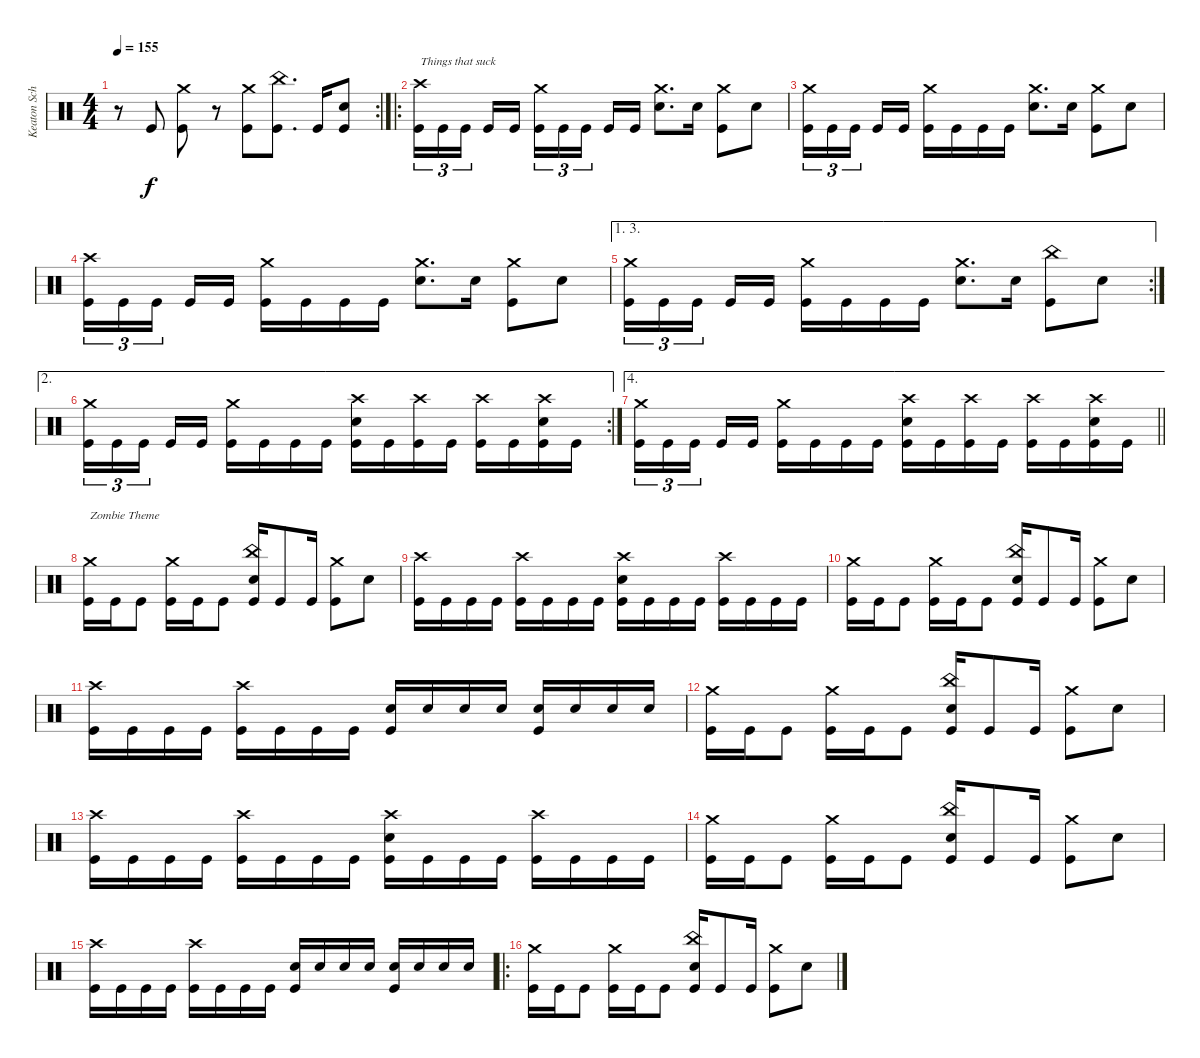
\track ("Keaton Schluchter Drums" "Keaton Sch") {instrument percussion bank 20}
\staff {score}
\articulation defaults
\rc 2
\ts (4 4)
\tempo 155
\clef neutral
\ks c
r.8{dy f} "Kick (hit)".8 ("Crash medium (hit)" "Kick (hit)").8 r.8 ("Crash medium (hit)" "Kick (hit)").8 ("China (hit)" "Kick (hit)").8{d} "Kick (hit)".16 ("Electric Snare (hit)" "Kick (hit)").8 |
\ro
("Crash high (hit)" "Kick (hit)").16{tu (3 2) txt "Things that suck"} "Kick (hit)".16{tu (3 2)} "Kick (hit)".16{tu (3 2) beam splitsecondary} "Kick (hit)".16 "Kick (hit)".16 ("Crash medium (hit)" "Kick (hit)").16{tu (3 2)} "Kick (hit)".16{tu (3 2)} "Kick (hit)".16{tu (3 2) beam splitsecondary} "Kick (hit)".16 "Kick (hit)".16 ("Crash medium (hit)" "Electric Snare (hit)").8{d} "Electric Snare (hit)".16 ("Crash medium (hit)" "Kick (hit)").8 "Electric Snare (hit)".8 |
("Crash medium (hit)" "Kick (hit)").16{tu (3 2)} "Kick (hit)".16{tu (3 2)} "Kick (hit)".16{tu (3 2) beam splitsecondary} "Kick (hit)".16 "Kick (hit)".16 ("Crash medium (hit)" "Kick (hit)").16 "Kick (hit)".16 "Kick (hit)".16 "Kick (hit)".16 ("Crash medium (hit)" "Electric Snare (hit)").8{d} "Electric Snare (hit)".16 ("Crash medium (hit)" "Kick (hit)").8 "Electric Snare (hit)".8 |
("Crash high (hit)" "Kick (hit)").16{tu (3 2)} "Kick (hit)".16{tu (3 2)} "Kick (hit)".16{tu (3 2) beam splitsecondary} "Kick (hit)".16 "Kick (hit)".16 ("Crash medium (hit)" "Kick (hit)").16 "Kick (hit)".16 "Kick (hit)".16 "Kick (hit)".16 ("Crash medium (hit)" "Electric Snare (hit)").8{d} "Electric Snare (hit)".16 ("Crash medium (hit)" "Kick (hit)").8 "Electric Snare (hit)".8 |
\ae (1 3)
\rc 2
("Crash medium (hit)" "Kick (hit)").16{tu (3 2)} "Kick (hit)".16{tu (3 2)} "Kick (hit)".16{tu (3 2) beam splitsecondary} "Kick (hit)".16 "Kick (hit)".16 ("Crash medium (hit)" "Kick (hit)").16 "Kick (hit)".16 "Kick (hit)".16 "Kick (hit)".16 ("Crash medium (hit)" "Electric Snare (hit)").8{d} "Electric Snare (hit)".16 ("China (hit)" "Kick (hit)").8 "Electric Snare (hit)".8 |
\ae 2
\rc 1
("Crash medium (hit)" "Kick (hit)").16{tu (3 2)} "Kick (hit)".16{tu (3 2)} "Kick (hit)".16{tu (3 2) beam splitsecondary} "Kick (hit)".16 "Kick (hit)".16 ("Crash medium (hit)" "Kick (hit)").16 "Kick (hit)".16 "Kick (hit)".16 "Kick (hit)".16 ("Crash high (hit)" "Electric Snare (hit)" "Kick (hit)").16 "Kick (hit)".16 ("Crash high (hit)" "Kick (hit)").16 "Kick (hit)".16 ("Crash high (hit)" "Kick (hit)").16 "Kick (hit)".16 ("Crash high (hit)" "Electric Snare (hit)" "Kick (hit)").16 "Kick (hit)".16 |
\ae 4
\barLineRight lightlight
("Crash medium (hit)" "Kick (hit)").16{tu (3 2)} "Kick (hit)".16{tu (3 2)} "Kick (hit)".16{tu (3 2) beam splitsecondary} "Kick (hit)".16 "Kick (hit)".16 ("Crash medium (hit)" "Kick (hit)").16 "Kick (hit)".16 "Kick (hit)".16 "Kick (hit)".16 ("Crash high (hit)" "Electric Snare (hit)" "Kick (hit)").16 "Kick (hit)".16 ("Crash high (hit)" "Kick (hit)").16 "Kick (hit)".16 ("Crash high (hit)" "Kick (hit)").16 "Kick (hit)".16 ("Crash high (hit)" "Electric Snare (hit)" "Kick (hit)").16 "Kick (hit)".16 |
("Crash medium (hit)" "Kick (hit)").16{txt "Zombie Theme"} "Kick (hit)".16 "Kick (hit)".8 ("Crash medium (hit)" "Kick (hit)").16 "Kick (hit)".16 "Kick (hit)".8 ("China (hit)" "Electric Snare (hit)" "Kick (hit)").16 "Kick (hit)".8 "Kick (hit)".16 ("Crash medium (hit)" "Kick (hit)").8 "Electric Snare (hit)".8 |
("Crash high (hit)" "Kick (hit)").16 "Kick (hit)".16 "Kick (hit)".16 "Kick (hit)".16 ("Crash high (hit)" "Kick (hit)").16 "Kick (hit)".16 "Kick (hit)".16 "Kick (hit)".16 ("Crash high (hit)" "Electric Snare (hit)" "Kick (hit)").16 "Kick (hit)".16 "Kick (hit)".16 "Kick (hit)".16 ("Crash high (hit)" "Kick (hit)").16 "Kick (hit)".16 "Kick (hit)".16 "Kick (hit)".16 |
("Crash medium (hit)" "Kick (hit)").16 "Kick (hit)".16 "Kick (hit)".8 ("Crash medium (hit)" "Kick (hit)").16 "Kick (hit)".16 "Kick (hit)".8 ("China (hit)" "Electric Snare (hit)" "Kick (hit)").16 "Kick (hit)".8 "Kick (hit)".16 ("Crash medium (hit)" "Kick (hit)").8 "Electric Snare (hit)".8 |
("Crash high (hit)" "Kick (hit)").16 "Kick (hit)".16 "Kick (hit)".16 "Kick (hit)".16 ("Crash high (hit)" "Kick (hit)").16 "Kick (hit)".16 "Kick (hit)".16 "Kick (hit)".16 ("Electric Snare (hit)" "Kick (hit)").16 "Electric Snare (hit)".16 "Electric Snare (hit)".16 "Electric Snare (hit)".16 ("Electric Snare (hit)" "Kick (hit)").16 "Electric Snare (hit)".16 "Electric Snare (hit)".16 "Electric Snare (hit)".16 |
("Crash medium (hit)" "Kick (hit)").16 "Kick (hit)".16 "Kick (hit)".8 ("Crash medium (hit)" "Kick (hit)").16 "Kick (hit)".16 "Kick (hit)".8 ("China (hit)" "Electric Snare (hit)" "Kick (hit)").16 "Kick (hit)".8 "Kick (hit)".16 ("Crash medium (hit)" "Kick (hit)").8 "Electric Snare (hit)".8 |
("Crash high (hit)" "Kick (hit)").16 "Kick (hit)".16 "Kick (hit)".16 "Kick (hit)".16 ("Crash high (hit)" "Kick (hit)").16 "Kick (hit)".16 "Kick (hit)".16 "Kick (hit)".16 ("Crash high (hit)" "Electric Snare (hit)" "Kick (hit)").16 "Kick (hit)".16 "Kick (hit)".16 "Kick (hit)".16 ("Crash high (hit)" "Kick (hit)").16 "Kick (hit)".16 "Kick (hit)".16 "Kick (hit)".16 |
("Crash medium (hit)" "Kick (hit)").16 "Kick (hit)".16 "Kick (hit)".8 ("Crash medium (hit)" "Kick (hit)").16 "Kick (hit)".16 "Kick (hit)".8 ("China (hit)" "Electric Snare (hit)" "Kick (hit)").16 "Kick (hit)".8 "Kick (hit)".16 ("Crash medium (hit)" "Kick (hit)").8 "Electric Snare (hit)".8 |
("Crash high (hit)" "Kick (hit)").16 "Kick (hit)".16 "Kick (hit)".16 "Kick (hit)".16 ("Crash high (hit)" "Kick (hit)").16 "Kick (hit)".16 "Kick (hit)".16 "Kick (hit)".16 ("Electric Snare (hit)" "Kick (hit)").16 "Electric Snare (hit)".16 "Electric Snare (hit)".16 "Electric Snare (hit)".16 ("Electric Snare (hit)" "Kick (hit)").16 "Electric Snare (hit)".16 "Electric Snare (hit)".16 "Electric Snare (hit)".16 |
\ro
("Crash medium (hit)" "Kick (hit)").16 "Kick (hit)".16 "Kick (hit)".8 ("Crash medium (hit)" "Kick (hit)").16 "Kick (hit)".16 "Kick (hit)".8 ("China (hit)" "Electric Snare (hit)" "Kick (hit)").16 "Kick (hit)".8 "Kick (hit)".16 ("Crash medium (hit)" "Kick (hit)").8 "Electric Snare (hit)".8
